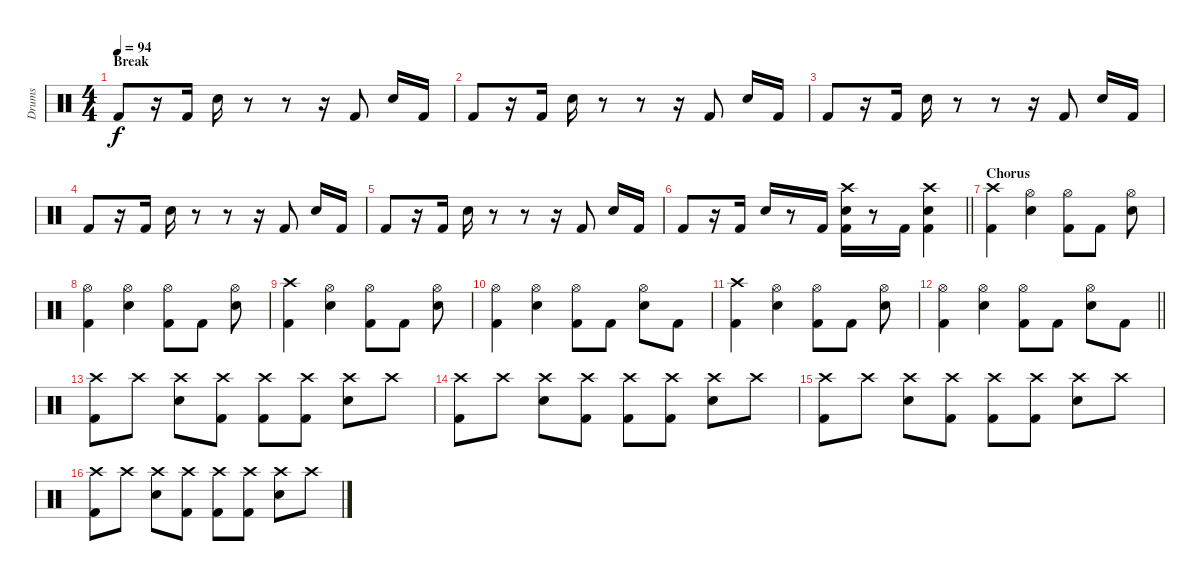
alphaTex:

\track ("Drums" "Drums") {instrument percussion}
\staff {score}
\articulation defaults
\ts (4 4)
\section ("" "Break")
\tempo 94
\clef neutral
\ks c "Kick (hit) 2".8{dy f}
r.16 "Kick (hit) 2".16 "Snare (hit) 2".16 r.8 r.8 r.16 "Kick (hit) 2".8 "Snare (hit) 2".16 "Kick (hit) 2".16 |
"Kick (hit) 2".8 r.16 "Kick (hit) 2".16 "Snare (hit) 2".16 r.8 r.8 r.16 "Kick (hit) 2".8 "Snare (hit) 2".16 "Kick (hit) 2".16 |
"Kick (hit) 2".8 r.16 "Kick (hit) 2".16 "Snare (hit) 2".16 r.8 r.8 r.16 "Kick (hit) 2".8 "Snare (hit) 2".16 "Kick (hit) 2".16 |
"Kick (hit) 2".8 r.16 "Kick (hit) 2".16 "Snare (hit) 2".16 r.8 r.8 r.16 "Kick (hit) 2".8 "Snare (hit) 2".16 "Kick (hit) 2".16 |
"Kick (hit) 2".8 r.16 "Kick (hit) 2".16 "Snare (hit) 2".16 r.8 r.8 r.16 "Kick (hit) 2".8 "Snare (hit) 2".16 "Kick (hit) 2".16 |
\barLineRight lightlight "Kick (hit) 2".8
r.16 "Kick (hit) 2".16 "Snare (hit) 2".16 r.8 "Kick (hit) 2".16 ("Kick (hit) 2" "Snare (hit) 2" "Crash high (hit)").16 r.8 "Kick (hit) 2".16 ("Kick (hit) 2" "Snare (hit) 2" "Crash high (hit)").4 |
\section ("" "Chorus")
("Kick (hit) 2" "Crash high (hit)").4 ("Snare (hit) 2" "Hi-Hat (open)").4 ("Kick (hit) 2" "Hi-Hat (open)").8 "Kick (hit) 2".8 ("Snare (hit) 2" "Hi-Hat (open)").8 |
("Kick (hit) 2" "Hi-Hat (open)").4 ("Snare (hit) 2" "Hi-Hat (open)").4 ("Kick (hit) 2" "Hi-Hat (open)").8 "Kick (hit) 2".8 ("Snare (hit) 2" "Hi-Hat (open)").8 |
("Kick (hit) 2" "Crash high (hit)").4 ("Snare (hit) 2" "Hi-Hat (open)").4 ("Kick (hit) 2" "Hi-Hat (open)").8 "Kick (hit) 2".8 ("Snare (hit) 2" "Hi-Hat (open)").8 |
("Kick (hit) 2" "Hi-Hat (open)").4 ("Snare (hit) 2" "Hi-Hat (open)").4 ("Kick (hit) 2" "Hi-Hat (open)").8 "Kick (hit) 2".8 ("Snare (hit) 2" "Hi-Hat (open)").8 "Kick (hit) 2".8 |
("Kick (hit) 2" "Crash high (hit)").4 ("Snare (hit) 2" "Hi-Hat (open)").4 ("Kick (hit) 2" "Hi-Hat (open)").8 "Kick (hit) 2".8 ("Snare (hit) 2" "Hi-Hat (open)").8 |
\barLineRight lightlight
("Kick (hit) 2" "Hi-Hat (open)").4 ("Snare (hit) 2" "Hi-Hat (open)").4 ("Kick (hit) 2" "Hi-Hat (open)").8 "Kick (hit) 2".8 ("Snare (hit) 2" "Hi-Hat (open)").8 "Kick (hit) 2".8 |
("Kick (hit) 2" "Crash high (hit)").8 "Crash high (hit)".8 ("Snare (hit) 2" "Crash high (hit)").8 ("Kick (hit) 2" "Crash high (hit)").8 ("Kick (hit) 2" "Crash high (hit)").8 ("Kick (hit) 2" "Crash high (hit)").8 ("Snare (hit) 2" "Crash high (hit)").8 "Crash high (hit)".8 |
("Kick (hit) 2" "Crash high (hit)").8 "Crash high (hit)".8 ("Snare (hit) 2" "Crash high (hit)").8 ("Kick (hit) 2" "Crash high (hit)").8 ("Kick (hit) 2" "Crash high (hit)").8 ("Kick (hit) 2" "Crash high (hit)").8 ("Snare (hit) 2" "Crash high (hit)").8 "Crash high (hit)".8 |
("Kick (hit) 2" "Crash high (hit)").8 "Crash high (hit)".8 ("Snare (hit) 2" "Crash high (hit)").8 ("Kick (hit) 2" "Crash high (hit)").8 ("Kick (hit) 2" "Crash high (hit)").8 ("Kick (hit) 2" "Crash high (hit)").8 ("Snare (hit) 2" "Crash high (hit)").8 "Crash high (hit)".8 |
("Kick (hit) 2" "Crash high (hit)").8 "Crash high (hit)".8 ("Snare (hit) 2" "Crash high (hit)").8 ("Kick (hit) 2" "Crash high (hit)").8 ("Kick (hit) 2" "Crash high (hit)").8 ("Kick (hit) 2" "Crash high (hit)").8 ("Snare (hit) 2" "Crash high (hit)").8 "Crash high (hit)".8
